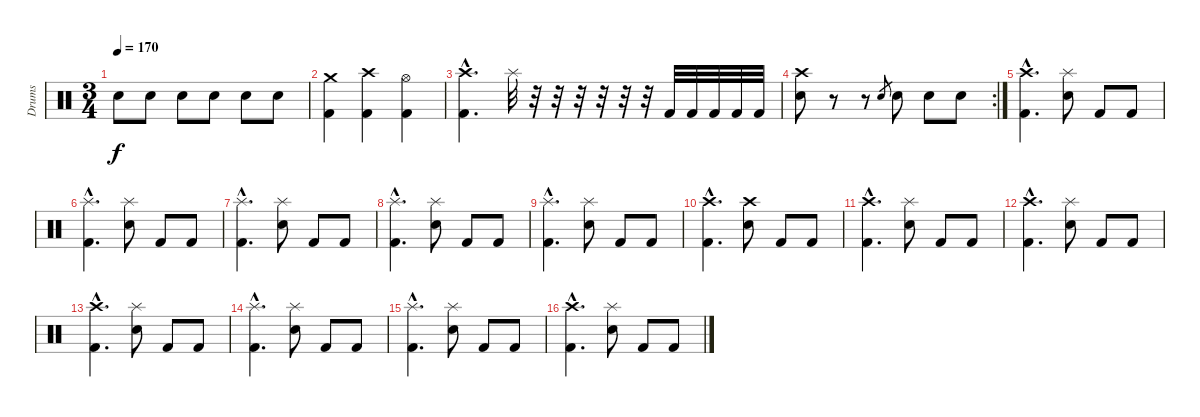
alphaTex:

\track ("Drums" "Drums") {instrument percussion}
\staff {score}
\articulation defaults
\ts (3 4)
\tempo 170
\clef neutral
\ks c "Snare (hit) 2".8{dy f} "Snare (hit) 2".8 "Snare (hit) 2".8 "Snare (hit) 2".8 "Snare (hit) 2".8 "Snare (hit) 2".8
|
("Crash medium (hit)" "Kick (hit) 2").4{volume 16} ("Crash high (hit)" "Kick (hit) 2").4 ("Hi-Hat (open)" "Kick (hit) 2").4 |
("Crash high (hit)"{hac} "Kick (hit) 2"{hac}).4{d} "Splash (hit)".32 r.32 r.32 r.32 r.32 r.32 r.32 "Kick (hit) 2".32 "Kick (hit) 2".32 "Kick (hit) 2".32 "Kick (hit) 2".32 "Kick (hit) 2".32 |
\rc 2
("Crash high (hit)" "Electric Snare (hit)").8 r.8 r.8 "Electric Snare (hit)".8{gr} "Electric Snare (hit)".8 "Electric Snare (hit)".8 "Electric Snare (hit)".8 |
("Crash high (hit)"{hac} "Kick (hit) 2"{hac}).4{d} ("Splash (hit)" "Electric Snare (hit)").8 "Kick (hit) 2".8 "Kick (hit) 2".8 |
("Splash (hit)"{hac} "Kick (hit) 2"{hac}).4{d} ("Splash (hit)" "Electric Snare (hit)").8 "Kick (hit) 2".8 "Kick (hit) 2".8 |
("Splash (hit)"{hac} "Kick (hit) 2"{hac}).4{d} ("Splash (hit)" "Electric Snare (hit)").8 "Kick (hit) 2".8 "Kick (hit) 2".8 |
("Splash (hit)"{hac} "Kick (hit) 2"{hac}).4{d} ("Splash (hit)" "Electric Snare (hit)").8 "Kick (hit) 2".8 "Kick (hit) 2".8 |
("Splash (hit)"{hac} "Kick (hit) 2"{hac}).4{d} ("Splash (hit)" "Electric Snare (hit)").8 "Kick (hit) 2".8 "Kick (hit) 2".8 |
("Crash high (hit)"{hac} "Kick (hit) 2"{hac}).4{d} ("Crash high (hit)" "Electric Snare (hit)").8 "Kick (hit) 2".8 "Kick (hit) 2".8 |
("Crash high (hit)"{hac} "Kick (hit) 2"{hac}).4{d} ("Splash (hit)" "Electric Snare (hit)").8 "Kick (hit) 2".8 "Kick (hit) 2".8 |
("Crash high (hit)"{hac} "Kick (hit) 2"{hac}).4{d} ("Splash (hit)" "Electric Snare (hit)").8 "Kick (hit) 2".8 "Kick (hit) 2".8 |
("Crash high (hit)"{hac} "Kick (hit) 2"{hac}).4{d} ("Splash (hit)" "Electric Snare (hit)").8 "Kick (hit) 2".8 "Kick (hit) 2".8 |
("Splash (hit)"{hac} "Kick (hit) 2"{hac}).4{d} ("Splash (hit)" "Electric Snare (hit)").8 "Kick (hit) 2".8 "Kick (hit) 2".8 |
("Splash (hit)"{hac} "Kick (hit) 2"{hac}).4{d} ("Splash (hit)" "Electric Snare (hit)").8 "Kick (hit) 2".8 "Kick (hit) 2".8 |
("Crash high (hit)"{hac} "Kick (hit) 2"{hac}).4{d} ("Splash (hit)" "Electric Snare (hit)").8 "Kick (hit) 2".8 "Kick (hit) 2".8
